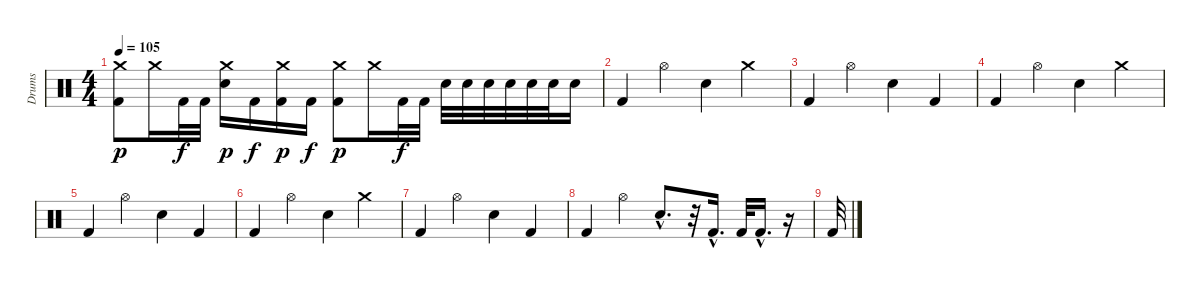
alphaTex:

\track ("Drums" "Drums") {instrument percussion}
\staff {score}
\articulation defaults
\ts (4 4)
\tempo 105
\clef neutral
\ks c
("Crash medium (hit)" "Kick (hit) 2").8{dy p} "Crash medium (hit)".16 "Kick (hit) 2".32{dy f} "Kick (hit) 2".32 ("Crash medium (hit)" "Electric Snare (hit)").16{dy p} "Kick (hit) 2".16{dy f} ("Crash medium (hit)" "Kick (hit) 2").16{dy p} "Kick (hit) 2".16{dy f} ("Crash medium (hit)" "Kick (hit) 2").8{dy p} "Crash medium (hit)".16 "Kick (hit) 2".32{dy f} "Kick (hit) 2".32 "Electric Snare (hit)".32 "Electric Snare (hit)".32 "Electric Snare (hit)".32 "Electric Snare (hit)".32 "Electric Snare (hit)".32 "Electric Snare (hit)".32 "Electric Snare (hit)".16 |
"Kick (hit) 2".4 "Hi-Hat (open)".4 "Electric Snare (hit)".4 "Crash medium (hit)".4 |
"Kick (hit) 2".4 "Hi-Hat (open)".4 "Electric Snare (hit)".4 "Kick (hit) 2".4 |
"Kick (hit) 2".4 "Hi-Hat (open)".4 "Electric Snare (hit)".4 "Crash medium (hit)".4 |
"Kick (hit) 2".4 "Hi-Hat (open)".4 "Electric Snare (hit)".4 "Kick (hit) 2".4 |
"Kick (hit) 2".4 "Hi-Hat (open)".4 "Electric Snare (hit)".4 "Crash medium (hit)".4 |
"Kick (hit) 2".4 "Hi-Hat (open)".4 "Electric Snare (hit)".4 "Kick (hit) 2".4 |
"Kick (hit) 2".4 "Hi-Hat (open)".4 "Electric Snare (hit)"{hac}.8{d} r.32 "Kick (hit) 2"{hac}.16{d} "Kick (hit) 2".32 "Kick (hit) 2"{hac}.16{d} r.16 |
"Kick (hit) 2".32
